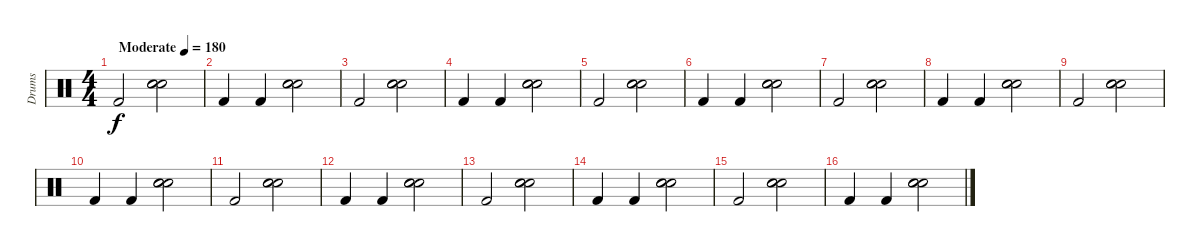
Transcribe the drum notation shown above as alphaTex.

\track ("Drums" "Drums") {instrument percussion}
\staff {score}
\articulation defaults
\ts (4 4)
\tempo (180 "Moderate")
\clef neutral
\ks c "Kick (hit) 2".2{dy f}
("Snare (hit) 2" "Electric Snare (hit)" "Snare (hit)").2 |
"Kick (hit) 2".4 "Kick (hit) 2".4 ("Snare (hit) 2" "Electric Snare (hit)" "Snare (hit)").2 |
"Kick (hit) 2".2 ("Snare (hit) 2" "Electric Snare (hit)" "Snare (hit)").2 |
"Kick (hit) 2".4 "Kick (hit) 2".4 ("Snare (hit) 2" "Electric Snare (hit)" "Snare (hit)").2 |
"Kick (hit) 2".2 ("Snare (hit) 2" "Electric Snare (hit)" "Snare (hit)").2 |
"Kick (hit) 2".4 "Kick (hit) 2".4 ("Snare (hit) 2" "Electric Snare (hit)" "Snare (hit)").2 |
"Kick (hit) 2".2 ("Snare (hit) 2" "Electric Snare (hit)" "Snare (hit)").2 |
"Kick (hit) 2".4 "Kick (hit) 2".4 ("Snare (hit) 2" "Electric Snare (hit)" "Snare (hit)").2 |
"Kick (hit) 2".2 ("Snare (hit) 2" "Electric Snare (hit)" "Snare (hit)").2 |
"Kick (hit) 2".4 "Kick (hit) 2".4 ("Snare (hit) 2" "Electric Snare (hit)" "Snare (hit)").2 |
"Kick (hit) 2".2 ("Snare (hit) 2" "Electric Snare (hit)" "Snare (hit)").2 |
"Kick (hit) 2".4 "Kick (hit) 2".4 ("Snare (hit) 2" "Electric Snare (hit)" "Snare (hit)").2 |
"Kick (hit) 2".2 ("Snare (hit) 2" "Electric Snare (hit)" "Snare (hit)").2 |
"Kick (hit) 2".4 "Kick (hit) 2".4 ("Snare (hit) 2" "Electric Snare (hit)" "Snare (hit)").2 |
"Kick (hit) 2".2 ("Snare (hit) 2" "Electric Snare (hit)" "Snare (hit)").2 |
"Kick (hit) 2".4 "Kick (hit) 2".4 ("Snare (hit) 2" "Electric Snare (hit)" "Snare (hit)").2
